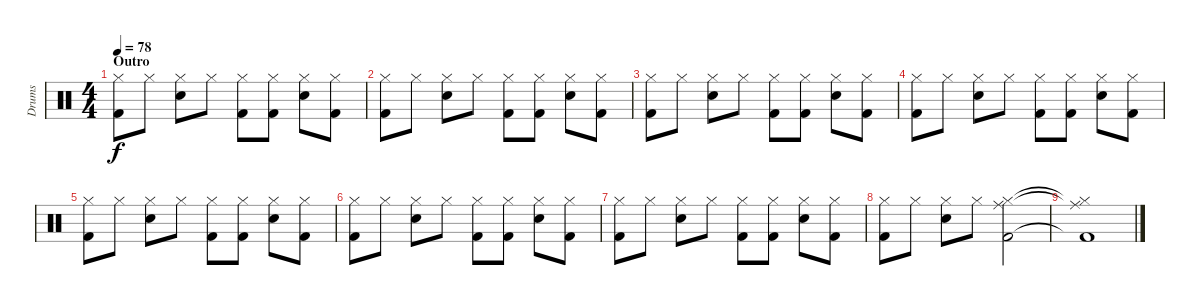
\track ("Drums" "Drums") {instrument percussion}
\staff {score}
\articulation defaults
\ts (4 4)
\section ("" "Outro")
\tempo 78
\clef neutral
\ks c
("Hi-Hat (closed)" "Kick (hit) 2").8{dy f} "Hi-Hat (closed)".8 ("Hi-Hat (closed)" "Snare (hit) 2").8 "Hi-Hat (closed)".8 ("Hi-Hat (closed)" "Kick (hit) 2").8 ("Hi-Hat (closed)" "Kick (hit) 2").8 ("Hi-Hat (closed)" "Snare (hit) 2").8 ("Hi-Hat (closed)" "Kick (hit) 2").8 |
("Hi-Hat (closed)" "Kick (hit) 2").8 "Hi-Hat (closed)".8 ("Hi-Hat (closed)" "Snare (hit) 2").8 "Hi-Hat (closed)".8 ("Hi-Hat (closed)" "Kick (hit) 2").8 ("Hi-Hat (closed)" "Kick (hit) 2").8 ("Hi-Hat (closed)" "Snare (hit) 2").8 ("Hi-Hat (closed)" "Kick (hit) 2").8 |
("Hi-Hat (closed)" "Kick (hit) 2").8 "Hi-Hat (closed)".8 ("Hi-Hat (closed)" "Snare (hit) 2").8 "Hi-Hat (closed)".8 ("Hi-Hat (closed)" "Kick (hit) 2").8 ("Hi-Hat (closed)" "Kick (hit) 2").8 ("Hi-Hat (closed)" "Snare (hit) 2").8 ("Hi-Hat (closed)" "Kick (hit) 2").8 |
("Hi-Hat (closed)" "Kick (hit) 2").8 "Hi-Hat (closed)".8 ("Hi-Hat (closed)" "Snare (hit) 2").8 "Hi-Hat (closed)".8 ("Hi-Hat (closed)" "Kick (hit) 2").8 ("Hi-Hat (closed)" "Kick (hit) 2").8 ("Hi-Hat (closed)" "Snare (hit) 2").8 ("Hi-Hat (closed)" "Kick (hit) 2").8 |
("Hi-Hat (closed)" "Kick (hit) 2").8 "Hi-Hat (closed)".8 ("Hi-Hat (closed)" "Snare (hit) 2").8 "Hi-Hat (closed)".8 ("Hi-Hat (closed)" "Kick (hit) 2").8 ("Hi-Hat (closed)" "Kick (hit) 2").8 ("Hi-Hat (closed)" "Snare (hit) 2").8 ("Hi-Hat (closed)" "Kick (hit) 2").8 |
("Hi-Hat (closed)" "Kick (hit) 2").8 "Hi-Hat (closed)".8 ("Hi-Hat (closed)" "Snare (hit) 2").8 "Hi-Hat (closed)".8 ("Hi-Hat (closed)" "Kick (hit) 2").8 ("Hi-Hat (closed)" "Kick (hit) 2").8 ("Hi-Hat (closed)" "Snare (hit) 2").8 ("Hi-Hat (closed)" "Kick (hit) 2").8 |
("Hi-Hat (closed)" "Kick (hit) 2").8 "Hi-Hat (closed)".8 ("Hi-Hat (closed)" "Snare (hit) 2").8 "Hi-Hat (closed)".8 ("Hi-Hat (closed)" "Kick (hit) 2").8 ("Hi-Hat (closed)" "Kick (hit) 2").8 ("Hi-Hat (closed)" "Snare (hit) 2").8 ("Hi-Hat (closed)" "Kick (hit) 2").8 |
("Hi-Hat (closed)" "Kick (hit) 2").8 "Hi-Hat (closed)".8 ("Hi-Hat (closed)" "Snare (hit) 2").8 "Hi-Hat (closed)".8 ("Ride (middle)" "Hi-Hat (closed)" "Kick (hit) 2").2 |
("Ride (middle)"{t} "Hi-Hat (closed)"{t} "Kick (hit) 2"{t}).1
